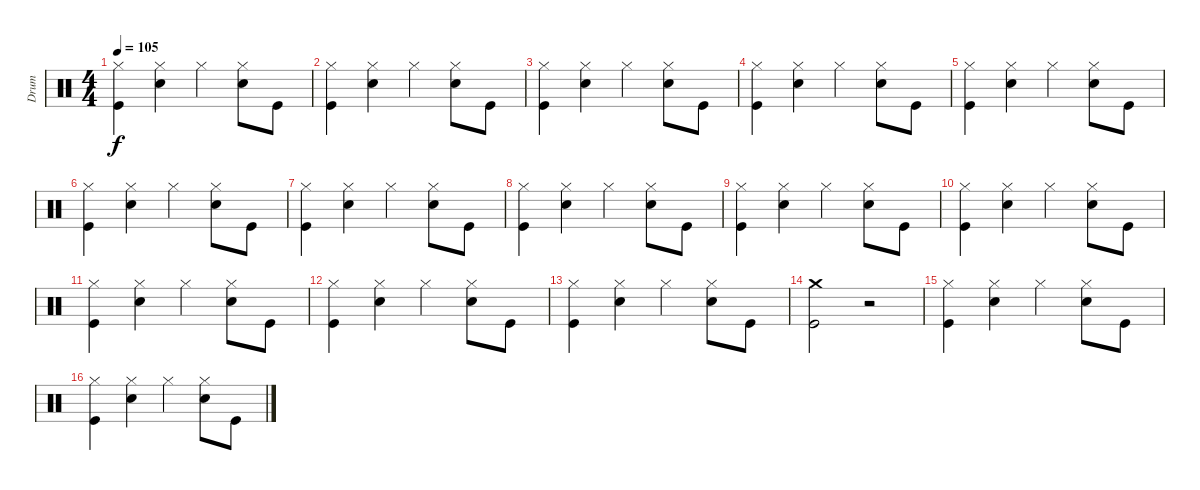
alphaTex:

\track ("Drum" "Drum") {instrument percussion}
\staff {score}
\articulation defaults
\ts (4 4)
\tempo 105
\clef neutral
\ks c
("Hi-Hat (closed)" "Kick (hit)").4{dy f} ("Hi-Hat (closed)" "Snare (hit) 2").4 "Hi-Hat (closed)".4 ("Hi-Hat (closed)" "Snare (hit) 2").8 "Kick (hit)".8 |
("Hi-Hat (closed)" "Kick (hit)").4 ("Hi-Hat (closed)" "Snare (hit) 2").4 "Hi-Hat (closed)".4 ("Hi-Hat (closed)" "Snare (hit) 2").8 "Kick (hit)".8 |
("Hi-Hat (closed)" "Kick (hit)").4 ("Hi-Hat (closed)" "Snare (hit) 2").4 "Hi-Hat (closed)".4 ("Hi-Hat (closed)" "Snare (hit) 2").8 "Kick (hit)".8 |
("Hi-Hat (closed)" "Kick (hit)").4 ("Hi-Hat (closed)" "Snare (hit) 2").4 "Hi-Hat (closed)".4 ("Hi-Hat (closed)" "Snare (hit) 2").8 "Kick (hit)".8 |
("Hi-Hat (closed)" "Kick (hit)").4 ("Hi-Hat (closed)" "Snare (hit) 2").4 "Hi-Hat (closed)".4 ("Hi-Hat (closed)" "Snare (hit) 2").8 "Kick (hit)".8 |
("Hi-Hat (closed)" "Kick (hit)").4 ("Hi-Hat (closed)" "Snare (hit) 2").4 "Hi-Hat (closed)".4 ("Hi-Hat (closed)" "Snare (hit) 2").8 "Kick (hit)".8 |
("Hi-Hat (closed)" "Kick (hit)").4 ("Hi-Hat (closed)" "Snare (hit) 2").4 "Hi-Hat (closed)".4 ("Hi-Hat (closed)" "Snare (hit) 2").8 "Kick (hit)".8 |
("Hi-Hat (closed)" "Kick (hit)").4 ("Hi-Hat (closed)" "Snare (hit) 2").4 "Hi-Hat (closed)".4 ("Hi-Hat (closed)" "Snare (hit) 2").8 "Kick (hit)".8 |
("Hi-Hat (closed)" "Kick (hit)").4 ("Hi-Hat (closed)" "Snare (hit) 2").4 "Hi-Hat (closed)".4 ("Hi-Hat (closed)" "Snare (hit) 2").8 "Kick (hit)".8 |
("Hi-Hat (closed)" "Kick (hit)").4 ("Hi-Hat (closed)" "Snare (hit) 2").4 "Hi-Hat (closed)".4 ("Hi-Hat (closed)" "Snare (hit) 2").8 "Kick (hit)".8 |
("Hi-Hat (closed)" "Kick (hit)").4 ("Hi-Hat (closed)" "Snare (hit) 2").4 "Hi-Hat (closed)".4 ("Hi-Hat (closed)" "Snare (hit) 2").8 "Kick (hit)".8 |
("Hi-Hat (closed)" "Kick (hit)").4 ("Hi-Hat (closed)" "Snare (hit) 2").4 "Hi-Hat (closed)".4 ("Hi-Hat (closed)" "Snare (hit) 2").8 "Kick (hit)".8 |
("Hi-Hat (closed)" "Kick (hit)").4 ("Hi-Hat (closed)" "Snare (hit) 2").4 "Hi-Hat (closed)".4 ("Hi-Hat (closed)" "Snare (hit) 2").8 "Kick (hit)".8 |
("Crash medium (hit)" "Kick (hit)").2 r.2 |
("Hi-Hat (closed)" "Kick (hit)").4 ("Hi-Hat (closed)" "Snare (hit) 2").4 "Hi-Hat (closed)".4 ("Hi-Hat (closed)" "Snare (hit) 2").8 "Kick (hit)".8 |
("Hi-Hat (closed)" "Kick (hit)").4 ("Hi-Hat (closed)" "Snare (hit) 2").4 "Hi-Hat (closed)".4 ("Hi-Hat (closed)" "Snare (hit) 2").8 "Kick (hit)".8
